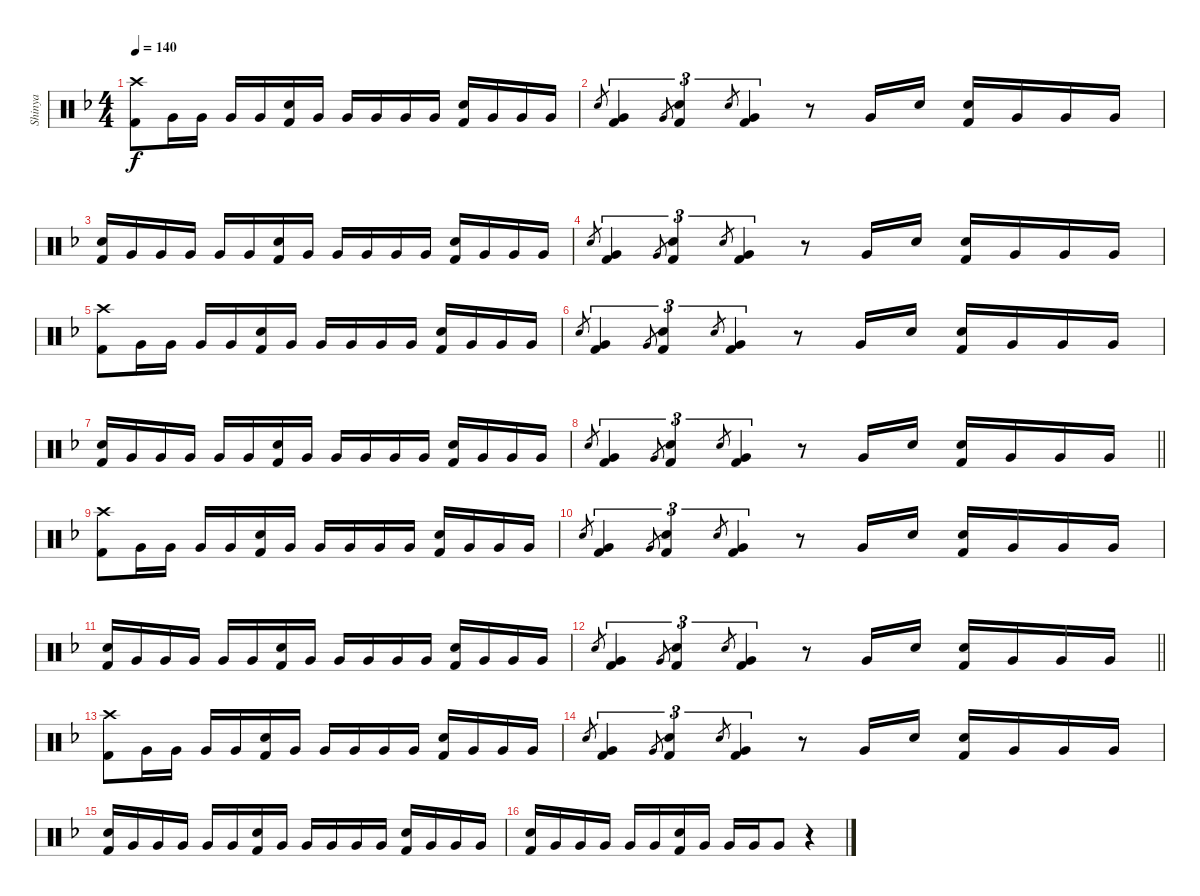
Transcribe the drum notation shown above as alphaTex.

\track ("Shinya" "Shinya") {instrument percussion}
\staff {score}
\articulation defaults
\ts (4 4)
\tempo 140
\clef neutral
\ks dminor
("Crash high (hit)" "Kick (hit) 2").8{dy f} "Very Low Tom (hit)".16 "Very Low Tom (hit)".16 "Very Low Tom (hit)".16 "Very Low Tom (hit)".16 ("Electric Snare (hit)" "Kick (hit) 2").16 "Very Low Tom (hit)".16 "Very Low Tom (hit)".16 "Very Low Tom (hit)".16 "Very Low Tom (hit)".16 "Very Low Tom (hit)".16 ("Electric Snare (hit)" "Kick (hit) 2").16 "Very Low Tom (hit)".16 "Very Low Tom (hit)".16 "Very Low Tom (hit)".16 |
"Electric Snare (hit)".8{gr} ("Very Low Tom (hit)" "Kick (hit) 2").4{tu (3 2)} "Very Low Tom (hit)".8{gr} ("Electric Snare (hit)" "Kick (hit) 2").4{tu (3 2)} "Electric Snare (hit)".8{gr} ("Very Low Tom (hit)" "Kick (hit) 2").4{tu (3 2)} r.8 "Very Low Tom (hit)".16 "Electric Snare (hit)".16 ("Electric Snare (hit)" "Kick (hit) 2").16 "Very Low Tom (hit)".16 "Very Low Tom (hit)".16 "Very Low Tom (hit)".16 |
("Electric Snare (hit)" "Kick (hit) 2").16 "Very Low Tom (hit)".16 "Very Low Tom (hit)".16 "Very Low Tom (hit)".16 "Very Low Tom (hit)".16 "Very Low Tom (hit)".16 ("Electric Snare (hit)" "Kick (hit) 2").16 "Very Low Tom (hit)".16 "Very Low Tom (hit)".16 "Very Low Tom (hit)".16 "Very Low Tom (hit)".16 "Very Low Tom (hit)".16 ("Electric Snare (hit)" "Kick (hit) 2").16 "Very Low Tom (hit)".16 "Very Low Tom (hit)".16 "Very Low Tom (hit)".16 |
"Electric Snare (hit)".8{gr} ("Very Low Tom (hit)" "Kick (hit) 2").4{tu (3 2)} "Very Low Tom (hit)".8{gr} ("Electric Snare (hit)" "Kick (hit) 2").4{tu (3 2)} "Electric Snare (hit)".8{gr} ("Very Low Tom (hit)" "Kick (hit) 2").4{tu (3 2)} r.8 "Very Low Tom (hit)".16 "Electric Snare (hit)".16 ("Electric Snare (hit)" "Kick (hit) 2").16 "Very Low Tom (hit)".16 "Very Low Tom (hit)".16 "Very Low Tom (hit)".16 |
("Crash high (hit)" "Kick (hit) 2").8 "Very Low Tom (hit)".16 "Very Low Tom (hit)".16 "Very Low Tom (hit)".16 "Very Low Tom (hit)".16 ("Electric Snare (hit)" "Kick (hit) 2").16 "Very Low Tom (hit)".16 "Very Low Tom (hit)".16 "Very Low Tom (hit)".16 "Very Low Tom (hit)".16 "Very Low Tom (hit)".16 ("Electric Snare (hit)" "Kick (hit) 2").16 "Very Low Tom (hit)".16 "Very Low Tom (hit)".16 "Very Low Tom (hit)".16 |
"Electric Snare (hit)".8{gr} ("Very Low Tom (hit)" "Kick (hit) 2").4{tu (3 2)} "Very Low Tom (hit)".8{gr} ("Electric Snare (hit)" "Kick (hit) 2").4{tu (3 2)} "Electric Snare (hit)".8{gr} ("Very Low Tom (hit)" "Kick (hit) 2").4{tu (3 2)} r.8 "Very Low Tom (hit)".16 "Electric Snare (hit)".16 ("Electric Snare (hit)" "Kick (hit) 2").16 "Very Low Tom (hit)".16 "Very Low Tom (hit)".16 "Very Low Tom (hit)".16 |
("Electric Snare (hit)" "Kick (hit) 2").16 "Very Low Tom (hit)".16 "Very Low Tom (hit)".16 "Very Low Tom (hit)".16 "Very Low Tom (hit)".16 "Very Low Tom (hit)".16 ("Electric Snare (hit)" "Kick (hit) 2").16 "Very Low Tom (hit)".16 "Very Low Tom (hit)".16 "Very Low Tom (hit)".16 "Very Low Tom (hit)".16 "Very Low Tom (hit)".16 ("Electric Snare (hit)" "Kick (hit) 2").16 "Very Low Tom (hit)".16 "Very Low Tom (hit)".16 "Very Low Tom (hit)".16 |
\barLineRight lightlight "Electric Snare (hit)".8{gr}
("Very Low Tom (hit)" "Kick (hit) 2").4{tu (3 2)} "Very Low Tom (hit)".8{gr} ("Electric Snare (hit)" "Kick (hit) 2").4{tu (3 2)} "Electric Snare (hit)".8{gr} ("Very Low Tom (hit)" "Kick (hit) 2").4{tu (3 2)} r.8 "Very Low Tom (hit)".16 "Electric Snare (hit)".16 ("Electric Snare (hit)" "Kick (hit) 2").16 "Very Low Tom (hit)".16 "Very Low Tom (hit)".16 "Very Low Tom (hit)".16 |
("Crash high (hit)" "Kick (hit) 2").8 "Very Low Tom (hit)".16 "Very Low Tom (hit)".16 "Very Low Tom (hit)".16 "Very Low Tom (hit)".16 ("Electric Snare (hit)" "Kick (hit) 2").16 "Very Low Tom (hit)".16 "Very Low Tom (hit)".16 "Very Low Tom (hit)".16 "Very Low Tom (hit)".16 "Very Low Tom (hit)".16 ("Electric Snare (hit)" "Kick (hit) 2").16 "Very Low Tom (hit)".16 "Very Low Tom (hit)".16 "Very Low Tom (hit)".16 |
"Electric Snare (hit)".8{gr} ("Very Low Tom (hit)" "Kick (hit) 2").4{tu (3 2)} "Very Low Tom (hit)".8{gr} ("Electric Snare (hit)" "Kick (hit) 2").4{tu (3 2)} "Electric Snare (hit)".8{gr} ("Very Low Tom (hit)" "Kick (hit) 2").4{tu (3 2)} r.8 "Very Low Tom (hit)".16 "Electric Snare (hit)".16 ("Electric Snare (hit)" "Kick (hit) 2").16 "Very Low Tom (hit)".16 "Very Low Tom (hit)".16 "Very Low Tom (hit)".16 |
("Electric Snare (hit)" "Kick (hit) 2").16 "Very Low Tom (hit)".16 "Very Low Tom (hit)".16 "Very Low Tom (hit)".16 "Very Low Tom (hit)".16 "Very Low Tom (hit)".16 ("Electric Snare (hit)" "Kick (hit) 2").16 "Very Low Tom (hit)".16 "Very Low Tom (hit)".16 "Very Low Tom (hit)".16 "Very Low Tom (hit)".16 "Very Low Tom (hit)".16 ("Electric Snare (hit)" "Kick (hit) 2").16 "Very Low Tom (hit)".16 "Very Low Tom (hit)".16 "Very Low Tom (hit)".16 |
\barLineRight lightlight "Electric Snare (hit)".8{gr}
("Very Low Tom (hit)" "Kick (hit) 2").4{tu (3 2)} "Very Low Tom (hit)".8{gr} ("Electric Snare (hit)" "Kick (hit) 2").4{tu (3 2)} "Electric Snare (hit)".8{gr} ("Very Low Tom (hit)" "Kick (hit) 2").4{tu (3 2)} r.8 "Very Low Tom (hit)".16 "Electric Snare (hit)".16 ("Electric Snare (hit)" "Kick (hit) 2").16 "Very Low Tom (hit)".16 "Very Low Tom (hit)".16 "Very Low Tom (hit)".16 |
("Crash high (hit)" "Kick (hit) 2").8 "Very Low Tom (hit)".16 "Very Low Tom (hit)".16 "Very Low Tom (hit)".16 "Very Low Tom (hit)".16 ("Electric Snare (hit)" "Kick (hit) 2").16 "Very Low Tom (hit)".16 "Very Low Tom (hit)".16 "Very Low Tom (hit)".16 "Very Low Tom (hit)".16 "Very Low Tom (hit)".16 ("Electric Snare (hit)" "Kick (hit) 2").16 "Very Low Tom (hit)".16 "Very Low Tom (hit)".16 "Very Low Tom (hit)".16 |
"Electric Snare (hit)".8{gr} ("Very Low Tom (hit)" "Kick (hit) 2").4{tu (3 2)} "Very Low Tom (hit)".8{gr} ("Electric Snare (hit)" "Kick (hit) 2").4{tu (3 2)} "Electric Snare (hit)".8{gr} ("Very Low Tom (hit)" "Kick (hit) 2").4{tu (3 2)} r.8 "Very Low Tom (hit)".16 "Electric Snare (hit)".16 ("Electric Snare (hit)" "Kick (hit) 2").16 "Very Low Tom (hit)".16 "Very Low Tom (hit)".16 "Very Low Tom (hit)".16 |
("Electric Snare (hit)" "Kick (hit) 2").16 "Very Low Tom (hit)".16 "Very Low Tom (hit)".16 "Very Low Tom (hit)".16 "Very Low Tom (hit)".16 "Very Low Tom (hit)".16 ("Electric Snare (hit)" "Kick (hit) 2").16 "Very Low Tom (hit)".16 "Very Low Tom (hit)".16 "Very Low Tom (hit)".16 "Very Low Tom (hit)".16 "Very Low Tom (hit)".16 ("Electric Snare (hit)" "Kick (hit) 2").16 "Very Low Tom (hit)".16 "Very Low Tom (hit)".16 "Very Low Tom (hit)".16 |
("Electric Snare (hit)" "Kick (hit) 2").16 "Very Low Tom (hit)".16 "Very Low Tom (hit)".16 "Very Low Tom (hit)".16 "Very Low Tom (hit)".16 "Very Low Tom (hit)".16 ("Electric Snare (hit)" "Kick (hit) 2").16 "Very Low Tom (hit)".16 "Very Low Tom (hit)".16 "Very Low Tom (hit)".16 "Very Low Tom (hit)".8 r.4
